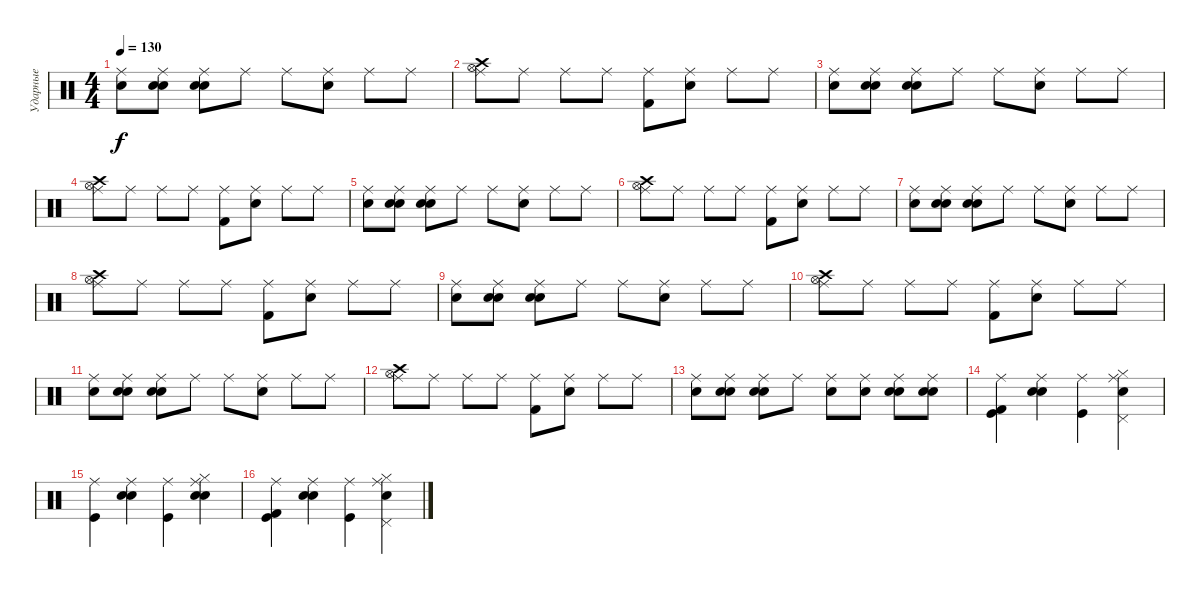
\track ("Ударные" "Ударные") {instrument percussion}
\staff {score}
\articulation defaults
\ts (4 4)
\tempo 130
\clef neutral
\ks c
("Snare (hit) 2" "Ride (middle)").8{dy f} ("Electric Snare (hit)" "Electric Snare (hit)" "Ride (middle)").8 ("Electric Snare (hit)" "Electric Snare (hit)" "Ride (middle)").8 "Ride (middle)".8 "Ride (middle)".8 ("Electric Snare (hit)" "Ride (middle)").8 "Ride (middle)".8 "Ride (middle)".8 |
("Hi-Hat (open)" "Ride (middle)" "Crash high (hit)").8 "Ride (middle)".8 "Ride (middle)".8 "Ride (middle)".8 ("Kick (hit) 2" "Ride (middle)").8 ("Electric Snare (hit)" "Ride (middle)").8 "Ride (middle)".8 "Ride (middle)".8 |
("Snare (hit) 2" "Ride (middle)").8 ("Electric Snare (hit)" "Electric Snare (hit)" "Ride (middle)").8 ("Electric Snare (hit)" "Electric Snare (hit)" "Ride (middle)").8 "Ride (middle)".8 "Ride (middle)".8 ("Electric Snare (hit)" "Ride (middle)").8 "Ride (middle)".8 "Ride (middle)".8 |
("Hi-Hat (open)" "Ride (middle)" "Crash high (hit)").8 "Ride (middle)".8 "Ride (middle)".8 "Ride (middle)".8 ("Kick (hit) 2" "Ride (middle)").8 ("Electric Snare (hit)" "Ride (middle)").8 "Ride (middle)".8 "Ride (middle)".8 |
("Snare (hit) 2" "Ride (middle)").8 ("Electric Snare (hit)" "Electric Snare (hit)" "Ride (middle)").8 ("Electric Snare (hit)" "Electric Snare (hit)" "Ride (middle)").8 "Ride (middle)".8 "Ride (middle)".8 ("Electric Snare (hit)" "Ride (middle)").8 "Ride (middle)".8 "Ride (middle)".8 |
("Hi-Hat (open)" "Ride (middle)" "Crash high (hit)").8 "Ride (middle)".8 "Ride (middle)".8 "Ride (middle)".8 ("Kick (hit) 2" "Ride (middle)").8 ("Electric Snare (hit)" "Ride (middle)").8 "Ride (middle)".8 "Ride (middle)".8 |
("Snare (hit) 2" "Ride (middle)").8 ("Electric Snare (hit)" "Electric Snare (hit)" "Ride (middle)").8 ("Electric Snare (hit)" "Electric Snare (hit)" "Ride (middle)").8 "Ride (middle)".8 "Ride (middle)".8 ("Electric Snare (hit)" "Ride (middle)").8 "Ride (middle)".8 "Ride (middle)".8 |
("Hi-Hat (open)" "Ride (middle)" "Crash high (hit)").8 "Ride (middle)".8 "Ride (middle)".8 "Ride (middle)".8 ("Kick (hit) 2" "Ride (middle)").8 ("Electric Snare (hit)" "Ride (middle)").8 "Ride (middle)".8 "Ride (middle)".8 |
("Snare (hit) 2" "Ride (middle)").8 ("Electric Snare (hit)" "Electric Snare (hit)" "Ride (middle)").8 ("Electric Snare (hit)" "Electric Snare (hit)" "Ride (middle)").8 "Ride (middle)".8 "Ride (middle)".8 ("Electric Snare (hit)" "Ride (middle)").8 "Ride (middle)".8 "Ride (middle)".8 |
("Hi-Hat (open)" "Ride (middle)" "Crash high (hit)").8 "Ride (middle)".8 "Ride (middle)".8 "Ride (middle)".8 ("Kick (hit) 2" "Ride (middle)").8 ("Electric Snare (hit)" "Ride (middle)").8 "Ride (middle)".8 "Ride (middle)".8 |
("Snare (hit) 2" "Ride (middle)").8 ("Electric Snare (hit)" "Electric Snare (hit)" "Ride (middle)").8 ("Electric Snare (hit)" "Electric Snare (hit)" "Ride (middle)").8 "Ride (middle)".8 "Ride (middle)".8 ("Electric Snare (hit)" "Ride (middle)").8 "Ride (middle)".8 "Ride (middle)".8 |
("Hi-Hat (open)" "Ride (middle)" "Crash high (hit)").8 "Ride (middle)".8 "Ride (middle)".8 "Ride (middle)".8 ("Kick (hit) 2" "Ride (middle)").8 ("Electric Snare (hit)" "Ride (middle)").8 "Ride (middle)".8 "Ride (middle)".8 |
("Snare (hit) 2" "Ride (middle)").8 ("Electric Snare (hit)" "Electric Snare (hit)" "Ride (middle)").8 ("Electric Snare (hit)" "Electric Snare (hit)" "Ride (middle)").8 "Ride (middle)".8 ("Electric Snare (hit)" "Ride (middle)").8 ("Electric Snare (hit)" "Ride (middle)").8 ("Electric Snare (hit)" "Electric Snare (hit)" "Ride (middle)").8 ("Electric Snare (hit)" "Electric Snare (hit)" "Ride (middle)").8 |
("Kick (hit)" "Kick (hit) 2" "Ride (middle)").4 ("Electric Snare (hit)" "Electric Snare (hit)" "Ride (middle)").4 ("Kick (hit)" "Ride (middle)").4 ("Electric Snare (hit)" "Pedal Hi-Hat (hit)" "Hi-Hat (closed)" "Ride (middle)").4 |
("Kick (hit)" "Ride (middle)").4 ("Electric Snare (hit)" "Electric Snare (hit)" "Ride (middle)").4 ("Kick (hit)" "Ride (middle)").4 ("Electric Snare (hit)" "Electric Snare (hit)" "Hi-Hat (closed)" "Ride (middle)").4 |
("Kick (hit)" "Kick (hit) 2" "Ride (middle)").4 ("Electric Snare (hit)" "Electric Snare (hit)" "Ride (middle)").4 ("Kick (hit)" "Ride (middle)").4 ("Electric Snare (hit)" "Pedal Hi-Hat (hit)" "Hi-Hat (closed)" "Ride (middle)").4
